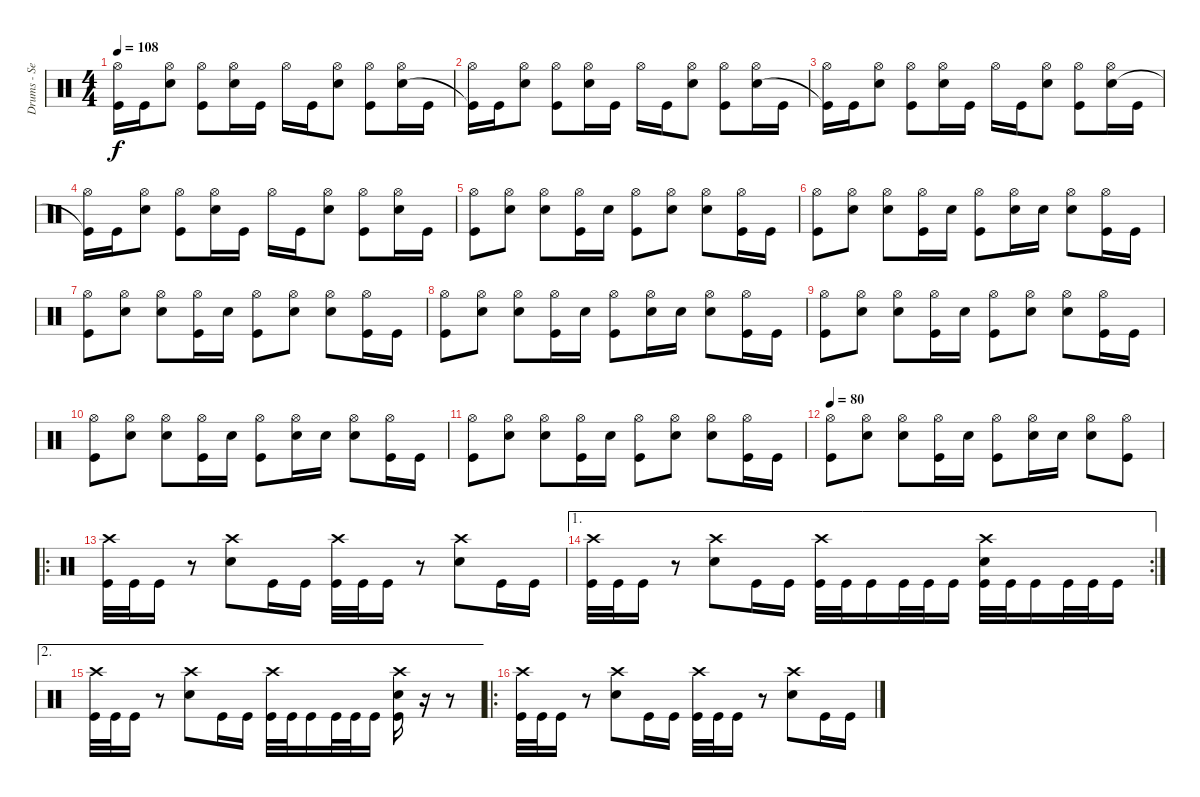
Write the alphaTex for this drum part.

\track ("Drums - Sebastian Heldt" "Drums - Se") {instrument percussion}
\staff {score}
\articulation defaults
\ts (4 4)
\tempo 108
\clef neutral
\ks c
("Hi-Hat (open)" "Kick (hit)"{t}).16{dy f} "Kick (hit)".16 ("Hi-Hat (open)" "Electric Snare (hit)").8 ("Hi-Hat (open)" "Kick (hit)").8 ("Hi-Hat (open)" "Electric Snare (hit)").16 "Kick (hit)".16 "Hi-Hat (open)".16 "Kick (hit)".16 ("Hi-Hat (open)" "Electric Snare (hit)").8 ("Hi-Hat (open)" "Kick (hit)").8 ("Hi-Hat (open)" "Electric Snare (hit)").16 "Kick (hit)".16 |
("Hi-Hat (open)" "Kick (hit)"{t}).16 "Kick (hit)".16 ("Hi-Hat (open)" "Electric Snare (hit)").8 ("Hi-Hat (open)" "Kick (hit)").8 ("Hi-Hat (open)" "Electric Snare (hit)").16 "Kick (hit)".16 "Hi-Hat (open)".16 "Kick (hit)".16 ("Hi-Hat (open)" "Electric Snare (hit)").8 ("Hi-Hat (open)" "Kick (hit)").8 ("Hi-Hat (open)" "Electric Snare (hit)").16 "Kick (hit)".16 |
("Hi-Hat (open)" "Kick (hit)"{t}).16 "Kick (hit)".16 ("Hi-Hat (open)" "Electric Snare (hit)").8 ("Hi-Hat (open)" "Kick (hit)").8 ("Hi-Hat (open)" "Electric Snare (hit)").16 "Kick (hit)".16 "Hi-Hat (open)".16 "Kick (hit)".16 ("Hi-Hat (open)" "Electric Snare (hit)").8 ("Hi-Hat (open)" "Kick (hit)").8 ("Hi-Hat (open)" "Electric Snare (hit)").16 "Kick (hit)".16 |
("Hi-Hat (open)" "Kick (hit)"{t}).16 "Kick (hit)".16 ("Hi-Hat (open)" "Electric Snare (hit)").8 ("Hi-Hat (open)" "Kick (hit)").8 ("Hi-Hat (open)" "Electric Snare (hit)").16 "Kick (hit)".16 "Hi-Hat (open)".16 "Kick (hit)".16 ("Hi-Hat (open)" "Electric Snare (hit)").8 ("Hi-Hat (open)" "Kick (hit)").8 ("Hi-Hat (open)" "Electric Snare (hit)").16 "Kick (hit)".16 |
("Hi-Hat (open)" "Kick (hit)").8 ("Hi-Hat (open)" "Electric Snare (hit)").8 ("Hi-Hat (open)" "Electric Snare (hit)").8 ("Hi-Hat (open)" "Kick (hit)").16 "Electric Snare (hit)".16 ("Hi-Hat (open)" "Kick (hit)").8 ("Hi-Hat (open)" "Electric Snare (hit)").8 ("Hi-Hat (open)" "Electric Snare (hit)").8 ("Hi-Hat (open)" "Kick (hit)").16 "Kick (hit)".16 |
("Hi-Hat (open)" "Kick (hit)").8 ("Hi-Hat (open)" "Electric Snare (hit)").8 ("Hi-Hat (open)" "Electric Snare (hit)").8 ("Hi-Hat (open)" "Kick (hit)").16 "Electric Snare (hit)".16 ("Hi-Hat (open)" "Kick (hit)").8 ("Hi-Hat (open)" "Electric Snare (hit)").16 "Electric Snare (hit)".16 ("Hi-Hat (open)" "Electric Snare (hit)").8 ("Hi-Hat (open)" "Kick (hit)").16 "Kick (hit)".16 |
("Hi-Hat (open)" "Kick (hit)").8 ("Hi-Hat (open)" "Electric Snare (hit)").8 ("Hi-Hat (open)" "Electric Snare (hit)").8 ("Hi-Hat (open)" "Kick (hit)").16 "Electric Snare (hit)".16 ("Hi-Hat (open)" "Kick (hit)").8 ("Hi-Hat (open)" "Electric Snare (hit)").8 ("Hi-Hat (open)" "Electric Snare (hit)").8 ("Hi-Hat (open)" "Kick (hit)").16 "Kick (hit)".16 |
("Hi-Hat (open)" "Kick (hit)").8 ("Hi-Hat (open)" "Electric Snare (hit)").8 ("Hi-Hat (open)" "Electric Snare (hit)").8 ("Hi-Hat (open)" "Kick (hit)").16 "Electric Snare (hit)".16 ("Hi-Hat (open)" "Kick (hit)").8 ("Hi-Hat (open)" "Electric Snare (hit)").16 "Electric Snare (hit)".16 ("Hi-Hat (open)" "Electric Snare (hit)").8 ("Hi-Hat (open)" "Kick (hit)").16 "Kick (hit)".16 |
("Hi-Hat (open)" "Kick (hit)").8 ("Hi-Hat (open)" "Electric Snare (hit)").8 ("Hi-Hat (open)" "Electric Snare (hit)").8 ("Hi-Hat (open)" "Kick (hit)").16 "Electric Snare (hit)".16 ("Hi-Hat (open)" "Kick (hit)").8 ("Hi-Hat (open)" "Electric Snare (hit)").8 ("Hi-Hat (open)" "Electric Snare (hit)").8 ("Hi-Hat (open)" "Kick (hit)").16 "Kick (hit)".16 |
("Hi-Hat (open)" "Kick (hit)").8 ("Hi-Hat (open)" "Electric Snare (hit)").8 ("Hi-Hat (open)" "Electric Snare (hit)").8 ("Hi-Hat (open)" "Kick (hit)").16 "Electric Snare (hit)".16 ("Hi-Hat (open)" "Kick (hit)").8 ("Hi-Hat (open)" "Electric Snare (hit)").16 "Electric Snare (hit)".16 ("Hi-Hat (open)" "Electric Snare (hit)").8 ("Hi-Hat (open)" "Kick (hit)").16 "Kick (hit)".16 |
("Hi-Hat (open)" "Kick (hit)").8 ("Hi-Hat (open)" "Electric Snare (hit)").8 ("Hi-Hat (open)" "Electric Snare (hit)").8 ("Hi-Hat (open)" "Kick (hit)").16 "Electric Snare (hit)".16 ("Hi-Hat (open)" "Kick (hit)").8 ("Hi-Hat (open)" "Electric Snare (hit)").8 ("Hi-Hat (open)" "Electric Snare (hit)").8 ("Hi-Hat (open)" "Kick (hit)").16 "Kick (hit)".16 |
\tempo 80
("Hi-Hat (open)" "Kick (hit)").8 ("Hi-Hat (open)" "Electric Snare (hit)").8 ("Hi-Hat (open)" "Electric Snare (hit)").8 ("Hi-Hat (open)" "Kick (hit)").16 "Electric Snare (hit)".16 ("Hi-Hat (open)" "Kick (hit)").8 ("Hi-Hat (open)" "Electric Snare (hit)").16 "Electric Snare (hit)".16 ("Hi-Hat (open)" "Electric Snare (hit)").8 ("Hi-Hat (open)" "Kick (hit)").8 |
\ro
("Crash high (hit)" "Kick (hit)").32 "Kick (hit)".32 "Kick (hit)".16 r.8 ("Crash high (hit)" "Electric Snare (hit)").8 "Kick (hit)".16 "Kick (hit)".16 ("Crash high (hit)" "Kick (hit)").32 "Kick (hit)".32 "Kick (hit)".16 r.8 ("Crash high (hit)" "Electric Snare (hit)").8 "Kick (hit)".16 "Kick (hit)".16 |
\ae 1
\rc 2
("Crash high (hit)" "Kick (hit)").32 "Kick (hit)".32 "Kick (hit)".16 r.8 ("Crash high (hit)" "Electric Snare (hit)").8 "Kick (hit)".16 "Kick (hit)".16 ("Crash high (hit)" "Kick (hit)").32 "Kick (hit)".32 "Kick (hit)".16 "Kick (hit)".32 "Kick (hit)".32 "Kick (hit)".16 ("Crash high (hit)" "Electric Snare (hit)" "Kick (hit)").32 "Kick (hit)".32 "Kick (hit)".16 "Kick (hit)".32 "Kick (hit)".32 "Kick (hit)".16 |
\ae 2
("Crash high (hit)" "Kick (hit)").32 "Kick (hit)".32 "Kick (hit)".16 r.8 ("Crash high (hit)" "Electric Snare (hit)").8 "Kick (hit)".16 "Kick (hit)".16 ("Crash high (hit)" "Kick (hit)").32 "Kick (hit)".32 "Kick (hit)".16 "Kick (hit)".32 "Kick (hit)".32 "Kick (hit)".16 ("Crash high (hit)" "Electric Snare (hit)" "Kick (hit)").16 r.16 r.8 |
\ro
("Crash high (hit)" "Kick (hit)").32 "Kick (hit)".32 "Kick (hit)".16 r.8 ("Crash high (hit)" "Electric Snare (hit)").8 "Kick (hit)".16 "Kick (hit)".16 ("Crash high (hit)" "Kick (hit)").32 "Kick (hit)".32 "Kick (hit)".16 r.8 ("Crash high (hit)" "Electric Snare (hit)").8 "Kick (hit)".16 "Kick (hit)".16
